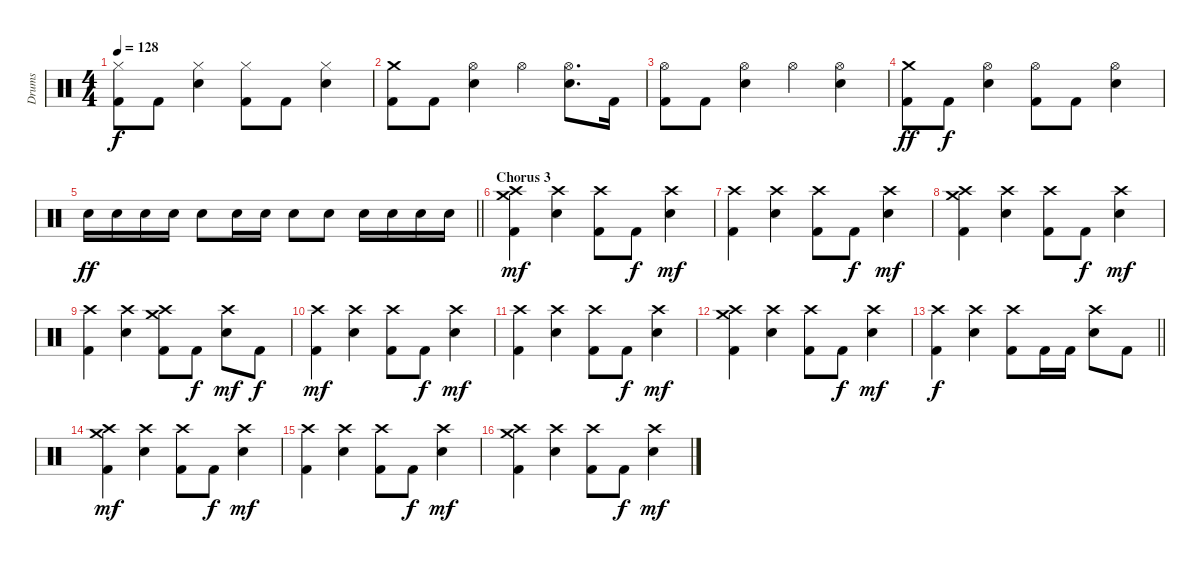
\track ("Drums" "Drums") {instrument percussion}
\staff {score}
\articulation defaults
\ts (4 4)
\tempo 128
\clef neutral
\ks c
("Hi-Hat (closed)" "Kick (hit) 2").8{dy f} "Kick (hit) 2".8 ("Hi-Hat (closed)" "Electric Snare (hit)").4 ("Hi-Hat (closed)" "Kick (hit) 2").8 "Kick (hit) 2".8 ("Hi-Hat (closed)" "Electric Snare (hit)").4 |
("Crash medium (hit)" "Kick (hit) 2").8 "Kick (hit) 2".8 ("Hi-Hat (open)" "Electric Snare (hit)").4 "Hi-Hat (open)".4 ("Hi-Hat (open)" "Electric Snare (hit)").8{d} "Kick (hit) 2".16 |
("Hi-Hat (open)" "Kick (hit) 2").8 "Kick (hit) 2".8 ("Hi-Hat (open)" "Electric Snare (hit)").4 "Hi-Hat (open)".4 ("Hi-Hat (open)" "Electric Snare (hit)").4 |
("Crash medium (hit)" "Kick (hit) 2").8{dy ff} "Kick (hit) 2".8{dy f} ("Hi-Hat (open)" "Electric Snare (hit)").4 ("Hi-Hat (open)" "Kick (hit) 2").8 "Kick (hit) 2".8 ("Hi-Hat (open)" "Electric Snare (hit)").4 |
\barLineRight lightlight "Electric Snare (hit)".16{dy ff} "Electric Snare (hit)".16 "Electric Snare (hit)".16 "Electric Snare (hit)".16 "Electric Snare (hit)".8 "Electric Snare (hit)".16 "Electric Snare (hit)".16 "Electric Snare (hit)".8 "Electric Snare (hit)".8 "Electric Snare (hit)".16 "Electric Snare (hit)".16 "Electric Snare (hit)".16 "Electric Snare (hit)".16
|
\section ("" "Chorus 3")
("Crash medium (hit)" "Crash high (hit)" "Kick (hit) 2").4{dy mf} ("Crash high (hit)" "Electric Snare (hit)").4 ("Crash high (hit)" "Kick (hit) 2").8 "Kick (hit) 2".8{dy f} ("Crash high (hit)" "Electric Snare (hit)").4{dy mf} |
("Crash high (hit)" "Kick (hit) 2").4 ("Crash high (hit)" "Electric Snare (hit)").4 ("Crash high (hit)" "Kick (hit) 2").8 "Kick (hit) 2".8{dy f} ("Crash high (hit)" "Electric Snare (hit)").4{dy mf} |
("Crash medium (hit)" "Crash high (hit)" "Kick (hit) 2").4 ("Crash high (hit)" "Electric Snare (hit)").4 ("Crash high (hit)" "Kick (hit) 2").8 "Kick (hit) 2".8{dy f} ("Crash high (hit)" "Electric Snare (hit)").4{dy mf} |
("Crash high (hit)" "Kick (hit) 2").4 ("Crash high (hit)" "Electric Snare (hit)").4 ("Crash medium (hit)" "Crash high (hit)" "Kick (hit) 2").8 "Kick (hit) 2".8{dy f} ("Crash high (hit)" "Electric Snare (hit)").8{dy mf} "Kick (hit) 2".8{dy f} |
("Crash high (hit)" "Kick (hit) 2").4{dy mf} ("Crash high (hit)" "Electric Snare (hit)").4 ("Crash high (hit)" "Kick (hit) 2").8 "Kick (hit) 2".8{dy f} ("Crash high (hit)" "Electric Snare (hit)").4{dy mf} |
("Crash high (hit)" "Kick (hit) 2").4 ("Crash high (hit)" "Electric Snare (hit)").4 ("Crash high (hit)" "Kick (hit) 2").8 "Kick (hit) 2".8{dy f} ("Crash high (hit)" "Electric Snare (hit)").4{dy mf} |
("Crash medium (hit)" "Crash high (hit)" "Kick (hit) 2").4 ("Crash high (hit)" "Electric Snare (hit)").4 ("Crash high (hit)" "Kick (hit) 2").8 "Kick (hit) 2".8{dy f} ("Crash high (hit)" "Electric Snare (hit)").4{dy mf} |
\barLineRight lightlight
("Crash high (hit)" "Kick (hit) 2").4{dy f} ("Crash high (hit)" "Electric Snare (hit)").4 ("Crash high (hit)" "Kick (hit) 2").8 "Kick (hit) 2".16 "Kick (hit) 2".16 ("Crash high (hit)" "Electric Snare (hit)").8 "Kick (hit) 2".8 |
("Crash medium (hit)" "Crash high (hit)" "Kick (hit) 2").4{dy mf} ("Crash high (hit)" "Electric Snare (hit)").4 ("Crash high (hit)" "Kick (hit) 2").8 "Kick (hit) 2".8{dy f} ("Crash high (hit)" "Electric Snare (hit)").4{dy mf} |
("Crash high (hit)" "Kick (hit) 2").4 ("Crash high (hit)" "Electric Snare (hit)").4 ("Crash high (hit)" "Kick (hit) 2").8 "Kick (hit) 2".8{dy f} ("Crash high (hit)" "Electric Snare (hit)").4{dy mf} |
("Crash medium (hit)" "Crash high (hit)" "Kick (hit) 2").4 ("Crash high (hit)" "Electric Snare (hit)").4 ("Crash high (hit)" "Kick (hit) 2").8 "Kick (hit) 2".8{dy f} ("Crash high (hit)" "Electric Snare (hit)").4{dy mf}
